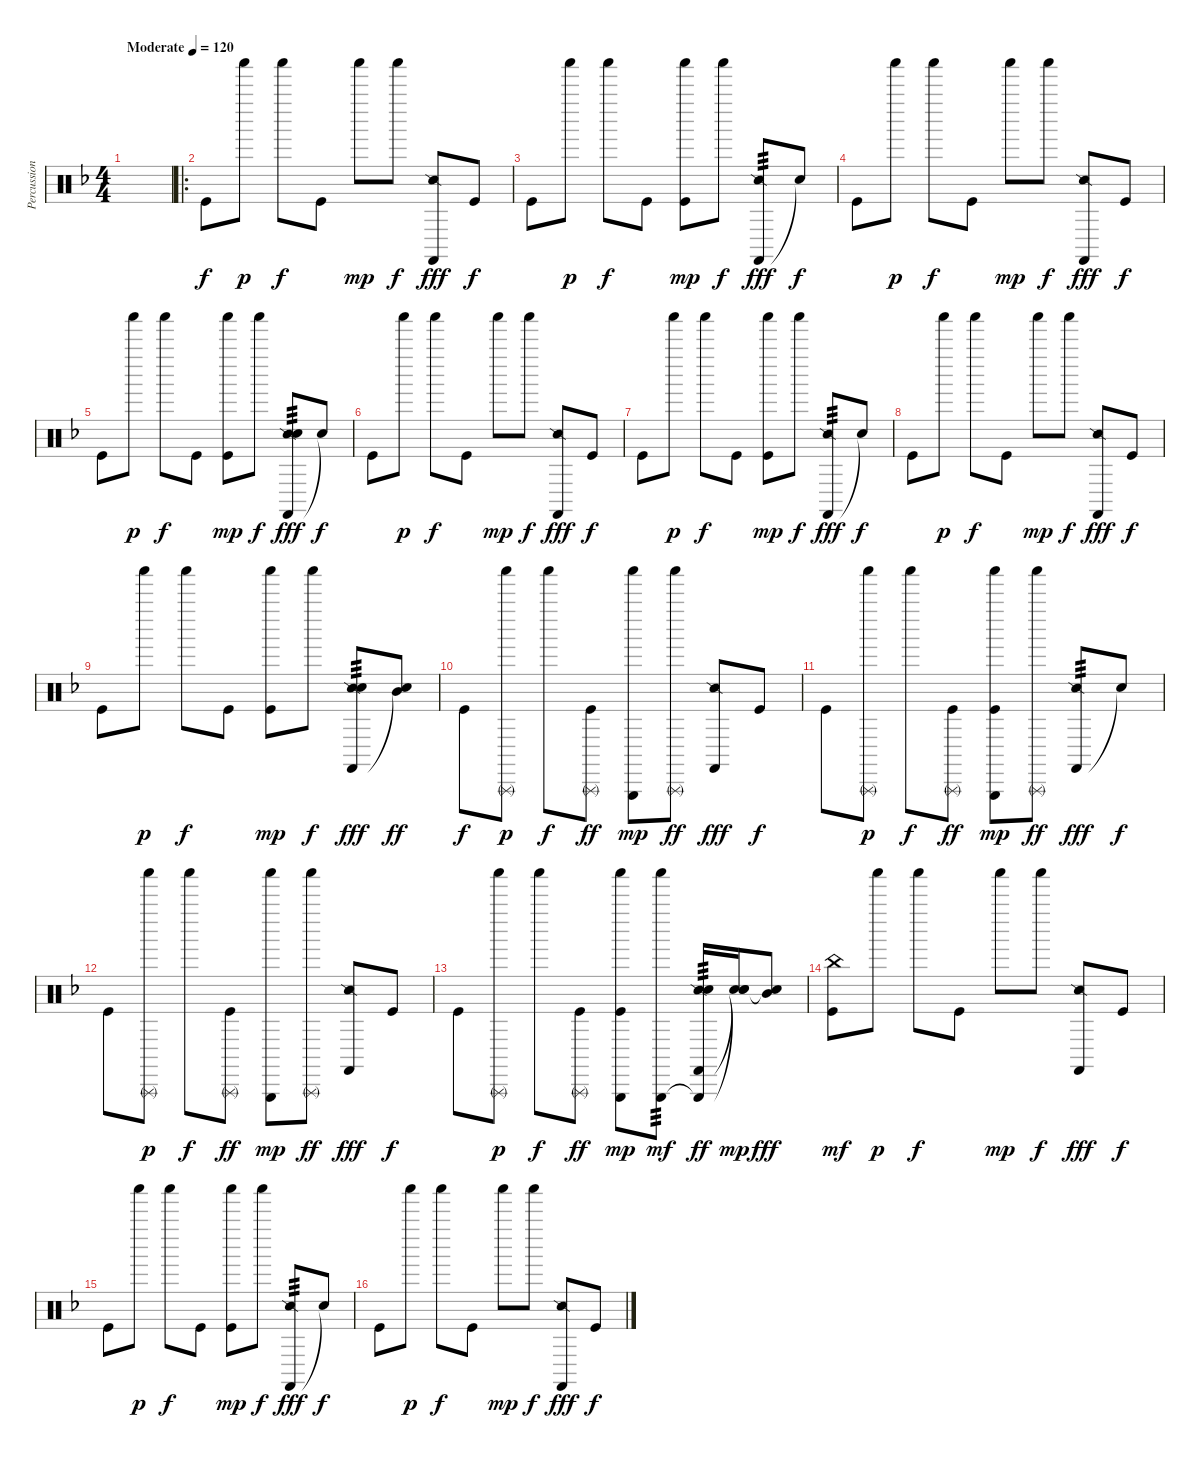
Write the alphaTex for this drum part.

\track ("Percussion" "Percussion") {instrument percussion}
\staff {score}
\articulation defaults
\ts (4 4)
\tempo (120 "Moderate")
\clef neutral
\ks dminor
|
\ro "Kick (hit)".8 "Shaker (hit)".8{dy p} "Shaker (hit)".8{dy f} "Kick (hit)".8 "Shaker (hit)".8{dy mp} "Shaker (hit)".8{dy f}
("Castanets (hit)" "Snare (side stick) 2").8{dy fff} "Kick (hit)".8{dy f} |
"Kick (hit)".8 "Shaker (hit)".8{dy p} "Shaker (hit)".8{dy f} "Kick (hit)".8 ("Shaker (hit)" "Kick (hit)").8{dy mp} "Shaker (hit)".8{dy f} ("Castanets (hit)" "Snare (side stick) 2").8{tp 3 dy fff} "Snare (hit)"{t}.8{dy f} |
"Kick (hit)".8 "Shaker (hit)".8{dy p} "Shaker (hit)".8{dy f} "Kick (hit)".8 "Shaker (hit)".8{dy mp} "Shaker (hit)".8{dy f} ("Castanets (hit)" "Snare (side stick) 2").8{dy fff} "Kick (hit)".8{dy f} |
"Kick (hit)".8 "Shaker (hit)".8{dy p} "Shaker (hit)".8{dy f} "Kick (hit)".8 ("Shaker (hit)" "Kick (hit)").8{dy mp} "Shaker (hit)".8{dy f} ("Castanets (hit)" "Snare (side stick) 2" "Electric Snare (hit)").8{tp 3 dy fff} "Snare (hit)"{t}.8{dy f} |
"Kick (hit)".8 "Shaker (hit)".8{dy p} "Shaker (hit)".8{dy f} "Kick (hit)".8 "Shaker (hit)".8{dy mp} "Shaker (hit)".8{dy f} ("Castanets (hit)" "Snare (side stick) 2").8{dy fff} "Kick (hit)".8{dy f} |
"Kick (hit)".8 "Shaker (hit)".8{dy p} "Shaker (hit)".8{dy f} "Kick (hit)".8 ("Shaker (hit)" "Kick (hit)").8{dy mp} "Shaker (hit)".8{dy f} ("Castanets (hit)" "Snare (side stick) 2").8{tp 3 dy fff} "Snare (hit)"{t}.8{dy f} |
"Kick (hit)".8 "Shaker (hit)".8{dy p} "Shaker (hit)".8{dy f} "Kick (hit)".8 "Shaker (hit)".8{dy mp} "Shaker (hit)".8{dy f} ("Castanets (hit)" "Snare (side stick) 2").8{dy fff} "Kick (hit)".8{dy f} |
"Kick (hit)".8 "Shaker (hit)".8{dy p} "Shaker (hit)".8{dy f} "Kick (hit)".8 ("Shaker (hit)" "Kick (hit)").8{dy mp} "Shaker (hit)".8{dy f} ("Castanets (hit)" "Snare (side stick) 2" "Electric Snare (hit)").8{tp 3 dy fff} ("Snare (hit)"{t} "Mid Tom (hit)").8{dy ff} |
"Kick (hit)".8{dy f} ("Triangle (rnute)" "Shaker (hit)").8{dy p} "Shaker (hit)".8{dy f} ("Triangle (rnute)" "Kick (hit)").8{dy ff} ("Triangle (hit)" "Shaker (hit)").8{dy mp} ("Triangle (rnute)" "Shaker (hit)").8{dy ff} ("Castanets (hit)" "Snare (side stick) 2").8{dy fff} "Kick (hit)".8{dy f} |
"Kick (hit)".8 ("Triangle (rnute)" "Shaker (hit)").8{dy p} "Shaker (hit)".8{dy f} ("Triangle (rnute)" "Kick (hit)").8{dy ff} ("Triangle (hit)" "Shaker (hit)" "Kick (hit)").8{dy mp} ("Triangle (rnute)" "Shaker (hit)").8{dy ff} ("Castanets (hit)" "Snare (side stick) 2").8{tp 3 dy fff} "Snare (hit)"{t}.8{dy f} |
"Kick (hit)".8 ("Triangle (rnute)" "Shaker (hit)").8{dy p} "Shaker (hit)".8{dy f} ("Triangle (rnute)" "Kick (hit)").8{dy ff} ("Triangle (hit)" "Shaker (hit)").8{dy mp} ("Triangle (rnute)" "Shaker (hit)").8{dy ff} ("Castanets (hit)" "Snare (side stick) 2").8{dy fff} "Kick (hit)".8{dy f} |
"Kick (hit)".8 ("Triangle (rnute)" "Shaker (hit)").8{dy p} "Shaker (hit)".8{dy f} ("Triangle (rnute)" "Kick (hit)").8{dy ff} ("Triangle (hit)" "Shaker (hit)" "Kick (hit)").8{dy mp} ("Triangle (hit)" "Shaker (hit)").8{tp 3 dy mf} ("Triangle (hit)"{t} "Castanets (hit)" "Snare (side stick) 2" "Electric Snare (hit)").16{tp 3 dy ff} ("Snare (hit)"{t} "Snare (hit)"{t} "Electric Snare (hit)").16{dy mp} ("Snare (hit)"{t} "Mid Tom (hit)").8{dy fff} |
("China (hit)" "Kick (hit)").8{dy mf} "Shaker (hit)".8{dy p} "Shaker (hit)".8{dy f} "Kick (hit)".8 "Shaker (hit)".8{dy mp} "Shaker (hit)".8{dy f} ("Castanets (hit)" "Snare (side stick) 2").8{dy fff} "Kick (hit)".8{dy f} |
"Kick (hit)".8 "Shaker (hit)".8{dy p} "Shaker (hit)".8{dy f} "Kick (hit)".8 ("Shaker (hit)" "Kick (hit)").8{dy mp} "Shaker (hit)".8{dy f} ("Castanets (hit)" "Snare (side stick) 2").8{tp 3 dy fff} "Snare (hit)"{t}.8{dy f} |
"Kick (hit)".8 "Shaker (hit)".8{dy p} "Shaker (hit)".8{dy f} "Kick (hit)".8 "Shaker (hit)".8{dy mp} "Shaker (hit)".8{dy f} ("Castanets (hit)" "Snare (side stick) 2").8{dy fff} "Kick (hit)".8{dy f}
